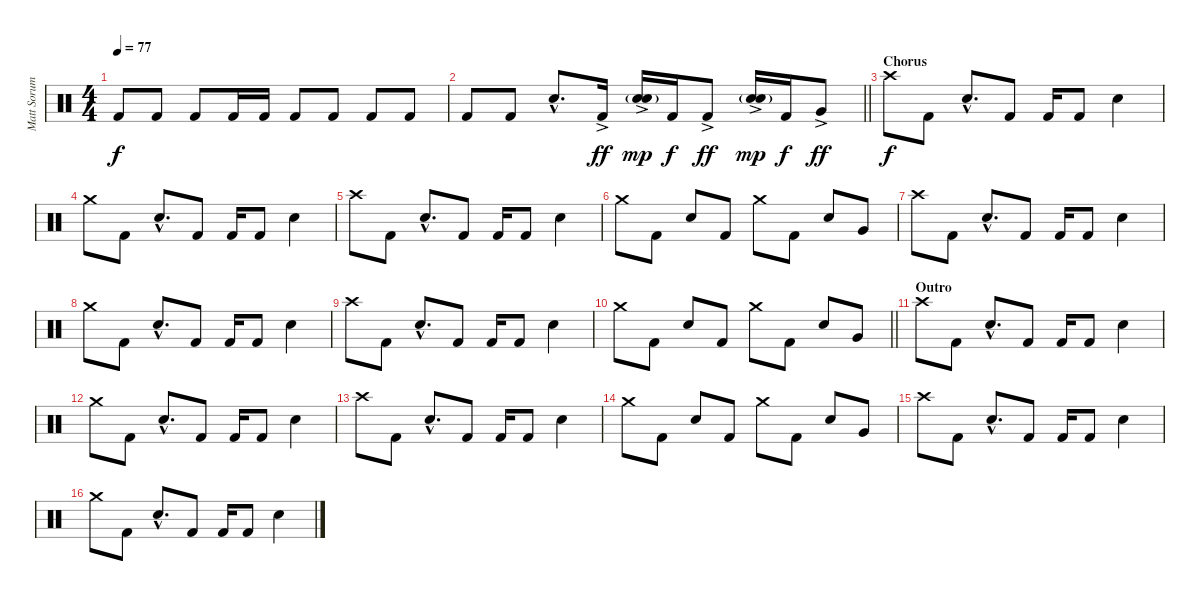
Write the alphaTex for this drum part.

\track ("Matt Sorum (Drums)" "Matt Sorum") {instrument percussion}
\staff {score}
\articulation defaults
\ts (4 4)
\tempo 77
\clef neutral
\ks c "Kick (hit) 2".8{dy f} "Kick (hit) 2".8 "Kick (hit) 2".8 "Kick (hit) 2".16 "Kick (hit) 2".16 "Kick (hit) 2".8 "Kick (hit) 2".8 "Kick (hit) 2".8 "Kick (hit) 2".8
|
\barLineRight lightlight "Kick (hit) 2".8 "Kick (hit) 2".8 "Electric Snare (hit)"{hac}.8{d} "Kick (hit) 2"{ac}.16{dy ff}
("Electric Snare (hit)"{ac} "Snare (hit) 2"{g}).16{dy mp} "Kick (hit) 2".16{dy f} "Kick (hit) 2"{ac}.8{dy ff} ("Electric Snare (hit)"{ac} "Snare (hit) 2"{g}).16{dy mp} "Kick (hit) 2".16{dy f} "Very Low Tom (hit)"{ac}.8{dy ff} |
\section ("" "Chorus")
"Crash high (hit)".8{dy f} "Kick (hit) 2".8 "Electric Snare (hit)"{hac}.8{d} "Kick (hit) 2".8 "Kick (hit) 2".16 "Kick (hit) 2".8 "Electric Snare (hit)".4 |
"Crash medium (hit)".8 "Kick (hit) 2".8 "Electric Snare (hit)"{hac}.8{d} "Kick (hit) 2".8 "Kick (hit) 2".16 "Kick (hit) 2".8 "Electric Snare (hit)".4 |
"Crash high (hit)".8 "Kick (hit) 2".8 "Electric Snare (hit)"{hac}.8{d} "Kick (hit) 2".8 "Kick (hit) 2".16 "Kick (hit) 2".8 "Electric Snare (hit)".4 |
"Crash medium (hit)".8 "Kick (hit) 2".8 "Electric Snare (hit)".8 "Kick (hit) 2".8 "Crash medium (hit)".8 "Kick (hit) 2".8 "Electric Snare (hit)".8 "Very Low Tom (hit)".8 |
"Crash high (hit)".8 "Kick (hit) 2".8 "Electric Snare (hit)"{hac}.8{d} "Kick (hit) 2".8 "Kick (hit) 2".16 "Kick (hit) 2".8 "Electric Snare (hit)".4 |
"Crash medium (hit)".8 "Kick (hit) 2".8 "Electric Snare (hit)"{hac}.8{d} "Kick (hit) 2".8 "Kick (hit) 2".16 "Kick (hit) 2".8 "Electric Snare (hit)".4 |
"Crash high (hit)".8 "Kick (hit) 2".8 "Electric Snare (hit)"{hac}.8{d} "Kick (hit) 2".8 "Kick (hit) 2".16 "Kick (hit) 2".8 "Electric Snare (hit)".4 |
\barLineRight lightlight "Crash medium (hit)".8 "Kick (hit) 2".8 "Electric Snare (hit)".8 "Kick (hit) 2".8 "Crash medium (hit)".8 "Kick (hit) 2".8 "Electric Snare (hit)".8 "Very Low Tom (hit)".8
|
\section ("" "Outro")
"Crash high (hit)".8 "Kick (hit) 2".8 "Electric Snare (hit)"{hac}.8{d} "Kick (hit) 2".8 "Kick (hit) 2".16 "Kick (hit) 2".8 "Electric Snare (hit)".4 |
"Crash medium (hit)".8 "Kick (hit) 2".8 "Electric Snare (hit)"{hac}.8{d} "Kick (hit) 2".8 "Kick (hit) 2".16 "Kick (hit) 2".8 "Electric Snare (hit)".4 |
"Crash high (hit)".8 "Kick (hit) 2".8 "Electric Snare (hit)"{hac}.8{d} "Kick (hit) 2".8 "Kick (hit) 2".16 "Kick (hit) 2".8 "Electric Snare (hit)".4 |
"Crash medium (hit)".8 "Kick (hit) 2".8 "Electric Snare (hit)".8 "Kick (hit) 2".8 "Crash medium (hit)".8 "Kick (hit) 2".8 "Electric Snare (hit)".8 "Very Low Tom (hit)".8 |
"Crash high (hit)".8 "Kick (hit) 2".8 "Electric Snare (hit)"{hac}.8{d} "Kick (hit) 2".8 "Kick (hit) 2".16 "Kick (hit) 2".8 "Electric Snare (hit)".4 |
"Crash medium (hit)".8 "Kick (hit) 2".8 "Electric Snare (hit)"{hac}.8{d} "Kick (hit) 2".8 "Kick (hit) 2".16 "Kick (hit) 2".8 "Electric Snare (hit)".4
